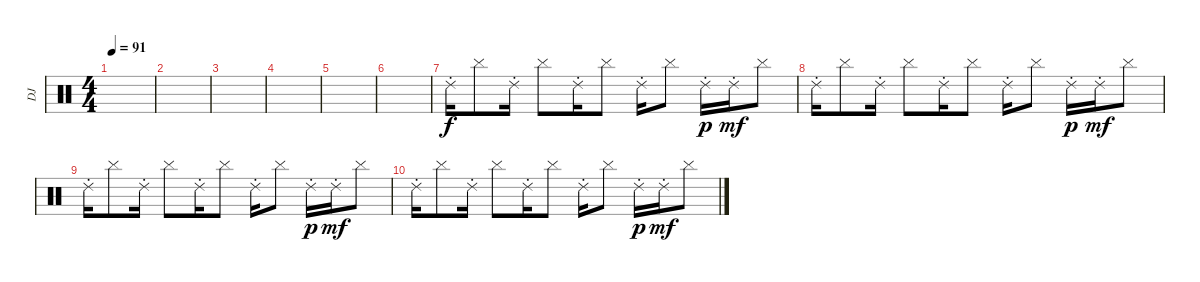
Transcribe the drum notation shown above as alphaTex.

\track ("DJ" "DJ") {instrument percussion}
\staff {score}
\articulation defaults
\ts (4 4)
\tempo 91
\clef neutral
\ks c
|
|
|
|
|
|
"Ride (choke) 2".16 "Cymbal (hit)".8 "Ride (choke) 2".16 "Cymbal (hit)".8 "Ride (choke) 2".16 "Cymbal (hit)".8 "Ride (choke) 2".16 "Cymbal (hit)".8 "Ride (choke) 2".16{dy p} "Ride (choke) 2".16{dy mf} "Cymbal (hit)".8 |
"Ride (choke) 2".16 "Cymbal (hit)".8 "Ride (choke) 2".16 "Cymbal (hit)".8 "Ride (choke) 2".16 "Cymbal (hit)".8 "Ride (choke) 2".16 "Cymbal (hit)".8 "Ride (choke) 2".16{dy p} "Ride (choke) 2".16{dy mf} "Cymbal (hit)".8 |
"Ride (choke) 2".16 "Cymbal (hit)".8 "Ride (choke) 2".16 "Cymbal (hit)".8 "Ride (choke) 2".16 "Cymbal (hit)".8 "Ride (choke) 2".16 "Cymbal (hit)".8 "Ride (choke) 2".16{dy p} "Ride (choke) 2".16{dy mf} "Cymbal (hit)".8 |
"Ride (choke) 2".16 "Cymbal (hit)".8 "Ride (choke) 2".16 "Cymbal (hit)".8 "Ride (choke) 2".16 "Cymbal (hit)".8 "Ride (choke) 2".16 "Cymbal (hit)".8 "Ride (choke) 2".16{dy p} "Ride (choke) 2".16{dy mf} "Cymbal (hit)".8
